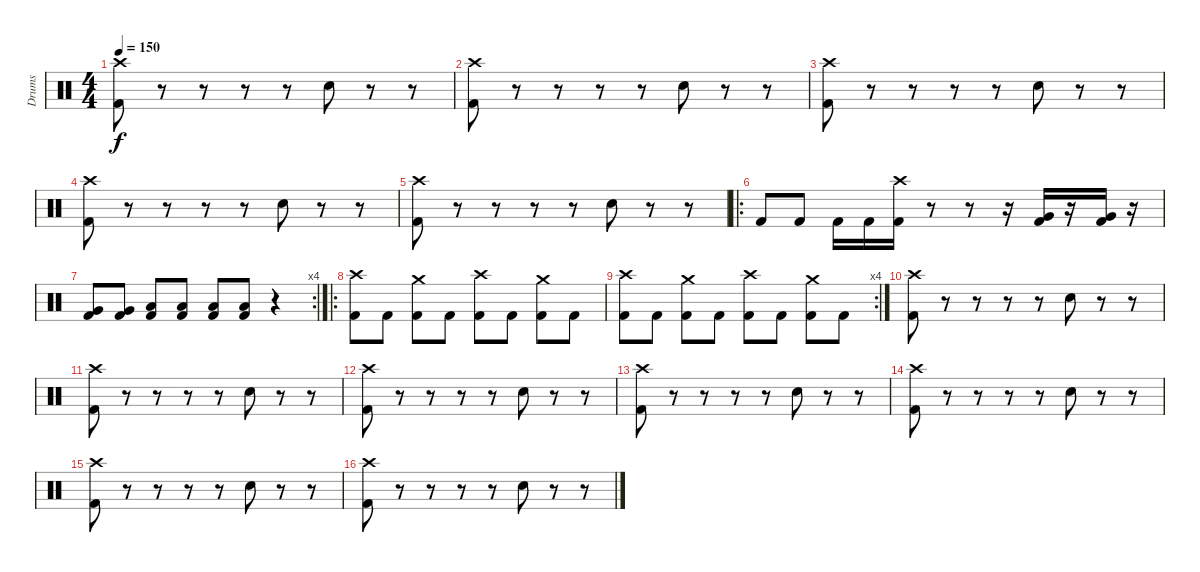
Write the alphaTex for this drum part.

\track ("Drums" "Drums") {instrument percussion}
\staff {score}
\articulation defaults
\ts (4 4)
\tempo 150
\clef neutral
\ks c
("Crash high (hit)" "Kick (hit) 2").8{dy f} r.8 r.8 r.8 r.8 "Snare (hit) 2".8 r.8 r.8 |
("Crash high (hit)" "Kick (hit) 2").8 r.8 r.8 r.8 r.8 "Snare (hit) 2".8 r.8 r.8 |
("Crash high (hit)" "Kick (hit) 2").8 r.8 r.8 r.8 r.8 "Snare (hit) 2".8 r.8 r.8 |
("Crash high (hit)" "Kick (hit) 2").8 r.8 r.8 r.8 r.8 "Snare (hit) 2".8 r.8 r.8 |
("Crash high (hit)" "Kick (hit) 2").8 r.8 r.8 r.8 r.8 "Snare (hit) 2".8 r.8 r.8 |
\ro "Kick (hit) 2".8 "Kick (hit) 2".8 "Kick (hit) 2".16 "Kick (hit) 2".16
("Crash high (hit)" "Kick (hit) 2").16 r.8 r.8 r.16 ("Very Low Tom (hit)" "Kick (hit) 2").16 r.16 ("Very Low Tom (hit)" "Kick (hit) 2").16 r.16 |
\rc 4
("Very Low Tom (hit)" "Kick (hit) 2").8 ("Very Low Tom (hit)" "Kick (hit) 2").8 ("Low Floor Tom (hit)" "Kick (hit) 2").8 ("Low Floor Tom (hit)" "Kick (hit) 2").8 ("Low Floor Tom (hit)" "Kick (hit) 2").8 ("Low Floor Tom (hit)" "Kick (hit) 2").8 r.4 |
\ro
("Kick (hit) 2" "Crash high (hit)").8 "Kick (hit) 2".8 ("Kick (hit) 2" "Crash medium (hit)").8 "Kick (hit) 2".8 ("Kick (hit) 2" "Crash high (hit)").8 "Kick (hit) 2".8 ("Kick (hit) 2" "Crash medium (hit)").8 "Kick (hit) 2".8 |
\rc 4
("Kick (hit) 2" "Crash high (hit)").8 "Kick (hit) 2".8 ("Kick (hit) 2" "Crash medium (hit)").8 "Kick (hit) 2".8 ("Kick (hit) 2" "Crash high (hit)").8 "Kick (hit) 2".8 ("Kick (hit) 2" "Crash medium (hit)").8 "Kick (hit) 2".8 |
("Crash high (hit)" "Kick (hit) 2").8 r.8 r.8 r.8 r.8 "Snare (hit) 2".8 r.8 r.8 |
("Crash high (hit)" "Kick (hit) 2").8 r.8 r.8 r.8 r.8 "Snare (hit) 2".8 r.8 r.8 |
("Crash high (hit)" "Kick (hit) 2").8 r.8 r.8 r.8 r.8 "Snare (hit) 2".8 r.8 r.8 |
("Crash high (hit)" "Kick (hit) 2").8 r.8 r.8 r.8 r.8 "Snare (hit) 2".8 r.8 r.8 |
("Crash high (hit)" "Kick (hit) 2").8 r.8 r.8 r.8 r.8 "Snare (hit) 2".8 r.8 r.8 |
("Crash high (hit)" "Kick (hit) 2").8 r.8 r.8 r.8 r.8 "Snare (hit) 2".8 r.8 r.8 |
("Crash high (hit)" "Kick (hit) 2").8 r.8 r.8 r.8 r.8 "Snare (hit) 2".8 r.8 r.8
